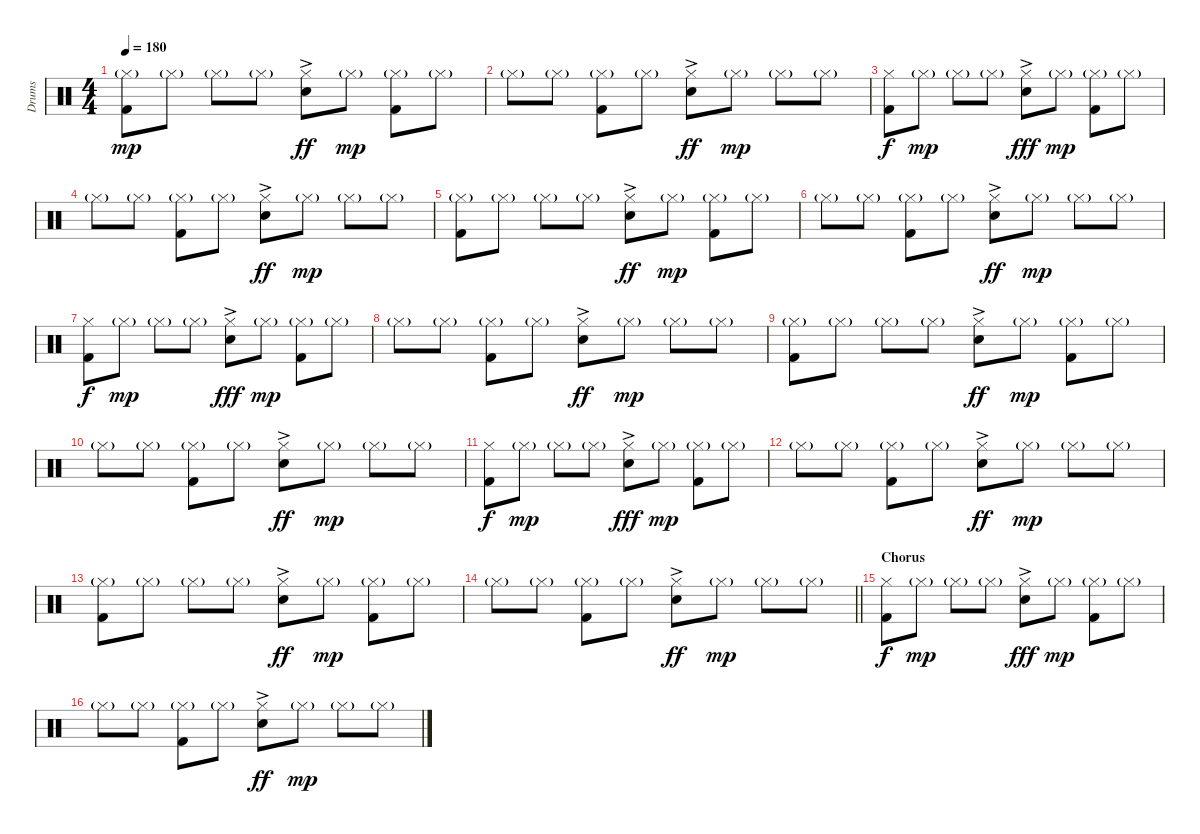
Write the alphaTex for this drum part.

\track ("Drums" "Drums") {instrument percussion}
\staff {score}
\articulation defaults
\ts (4 4)
\tempo 180
\clef neutral
\ks c
("Hi-Hat (closed)"{g} "Kick (hit) 2").8{dy mp} "Hi-Hat (closed)"{g}.8 "Hi-Hat (closed)"{g}.8 "Hi-Hat (closed)"{g}.8 ("Hi-Hat (closed)"{ac} "Snare (hit) 2"{ac}).8{dy ff} "Hi-Hat (closed)"{g}.8{dy mp} ("Hi-Hat (closed)"{g} "Kick (hit) 2").8 "Hi-Hat (closed)"{g}.8 |
"Hi-Hat (closed)"{g}.8 "Hi-Hat (closed)"{g}.8 ("Hi-Hat (closed)"{g} "Kick (hit) 2").8 "Hi-Hat (closed)"{g}.8 ("Hi-Hat (closed)"{ac} "Snare (hit) 2"{ac}).8{dy ff} "Hi-Hat (closed)"{g}.8{dy mp} "Hi-Hat (closed)"{g}.8 "Hi-Hat (closed)"{g}.8 |
("Hi-Hat (closed)" "Kick (hit) 2").8{dy f} "Hi-Hat (closed)"{g}.8{dy mp} "Hi-Hat (closed)"{g}.8 "Hi-Hat (closed)"{g}.8 ("Hi-Hat (closed)"{ac} "Snare (hit) 2"{ac}).8{dy fff} "Hi-Hat (closed)"{g}.8{dy mp} ("Hi-Hat (closed)"{g} "Kick (hit) 2").8 "Hi-Hat (closed)"{g}.8 |
"Hi-Hat (closed)"{g}.8 "Hi-Hat (closed)"{g}.8 ("Hi-Hat (closed)"{g} "Kick (hit) 2").8 "Hi-Hat (closed)"{g}.8 ("Hi-Hat (closed)"{ac} "Snare (hit) 2"{ac}).8{dy ff} "Hi-Hat (closed)"{g}.8{dy mp} "Hi-Hat (closed)"{g}.8 "Hi-Hat (closed)"{g}.8 |
("Hi-Hat (closed)"{g} "Kick (hit) 2").8 "Hi-Hat (closed)"{g}.8 "Hi-Hat (closed)"{g}.8 "Hi-Hat (closed)"{g}.8 ("Hi-Hat (closed)"{ac} "Snare (hit) 2"{ac}).8{dy ff} "Hi-Hat (closed)"{g}.8{dy mp} ("Hi-Hat (closed)"{g} "Kick (hit) 2").8 "Hi-Hat (closed)"{g}.8 |
"Hi-Hat (closed)"{g}.8 "Hi-Hat (closed)"{g}.8 ("Hi-Hat (closed)"{g} "Kick (hit) 2").8 "Hi-Hat (closed)"{g}.8 ("Hi-Hat (closed)"{ac} "Snare (hit) 2"{ac}).8{dy ff} "Hi-Hat (closed)"{g}.8{dy mp} "Hi-Hat (closed)"{g}.8 "Hi-Hat (closed)"{g}.8 |
("Hi-Hat (closed)" "Kick (hit) 2").8{dy f} "Hi-Hat (closed)"{g}.8{dy mp} "Hi-Hat (closed)"{g}.8 "Hi-Hat (closed)"{g}.8 ("Hi-Hat (closed)"{ac} "Snare (hit) 2"{ac}).8{dy fff} "Hi-Hat (closed)"{g}.8{dy mp} ("Hi-Hat (closed)"{g} "Kick (hit) 2").8 "Hi-Hat (closed)"{g}.8 |
"Hi-Hat (closed)"{g}.8 "Hi-Hat (closed)"{g}.8 ("Hi-Hat (closed)"{g} "Kick (hit) 2").8 "Hi-Hat (closed)"{g}.8 ("Hi-Hat (closed)"{ac} "Snare (hit) 2"{ac}).8{dy ff} "Hi-Hat (closed)"{g}.8{dy mp} "Hi-Hat (closed)"{g}.8 "Hi-Hat (closed)"{g}.8 |
("Hi-Hat (closed)"{g} "Kick (hit) 2").8 "Hi-Hat (closed)"{g}.8 "Hi-Hat (closed)"{g}.8 "Hi-Hat (closed)"{g}.8 ("Hi-Hat (closed)"{ac} "Snare (hit) 2"{ac}).8{dy ff} "Hi-Hat (closed)"{g}.8{dy mp} ("Hi-Hat (closed)"{g} "Kick (hit) 2").8 "Hi-Hat (closed)"{g}.8 |
"Hi-Hat (closed)"{g}.8 "Hi-Hat (closed)"{g}.8 ("Hi-Hat (closed)"{g} "Kick (hit) 2").8 "Hi-Hat (closed)"{g}.8 ("Hi-Hat (closed)"{ac} "Snare (hit) 2"{ac}).8{dy ff} "Hi-Hat (closed)"{g}.8{dy mp} "Hi-Hat (closed)"{g}.8 "Hi-Hat (closed)"{g}.8 |
("Hi-Hat (closed)" "Kick (hit) 2").8{dy f} "Hi-Hat (closed)"{g}.8{dy mp} "Hi-Hat (closed)"{g}.8 "Hi-Hat (closed)"{g}.8 ("Hi-Hat (closed)"{ac} "Snare (hit) 2"{ac}).8{dy fff} "Hi-Hat (closed)"{g}.8{dy mp} ("Hi-Hat (closed)"{g} "Kick (hit) 2").8 "Hi-Hat (closed)"{g}.8 |
"Hi-Hat (closed)"{g}.8 "Hi-Hat (closed)"{g}.8 ("Hi-Hat (closed)"{g} "Kick (hit) 2").8 "Hi-Hat (closed)"{g}.8 ("Hi-Hat (closed)"{ac} "Snare (hit) 2"{ac}).8{dy ff} "Hi-Hat (closed)"{g}.8{dy mp} "Hi-Hat (closed)"{g}.8 "Hi-Hat (closed)"{g}.8 |
("Hi-Hat (closed)"{g} "Kick (hit) 2").8 "Hi-Hat (closed)"{g}.8 "Hi-Hat (closed)"{g}.8 "Hi-Hat (closed)"{g}.8 ("Hi-Hat (closed)"{ac} "Snare (hit) 2"{ac}).8{dy ff} "Hi-Hat (closed)"{g}.8{dy mp} ("Hi-Hat (closed)"{g} "Kick (hit) 2").8 "Hi-Hat (closed)"{g}.8 |
\barLineRight lightlight "Hi-Hat (closed)"{g}.8 "Hi-Hat (closed)"{g}.8
("Hi-Hat (closed)"{g} "Kick (hit) 2").8 "Hi-Hat (closed)"{g}.8 ("Hi-Hat (closed)"{ac} "Snare (hit) 2"{ac}).8{dy ff} "Hi-Hat (closed)"{g}.8{dy mp} "Hi-Hat (closed)"{g}.8 "Hi-Hat (closed)"{g}.8 |
\section ("" "Chorus")
("Hi-Hat (closed)" "Kick (hit) 2").8{dy f} "Hi-Hat (closed)"{g}.8{dy mp} "Hi-Hat (closed)"{g}.8 "Hi-Hat (closed)"{g}.8 ("Hi-Hat (closed)"{ac} "Snare (hit) 2"{ac}).8{dy fff} "Hi-Hat (closed)"{g}.8{dy mp} ("Hi-Hat (closed)"{g} "Kick (hit) 2").8 "Hi-Hat (closed)"{g}.8 |
"Hi-Hat (closed)"{g}.8 "Hi-Hat (closed)"{g}.8 ("Hi-Hat (closed)"{g} "Kick (hit) 2").8 "Hi-Hat (closed)"{g}.8 ("Hi-Hat (closed)"{ac} "Snare (hit) 2"{ac}).8{dy ff} "Hi-Hat (closed)"{g}.8{dy mp} "Hi-Hat (closed)"{g}.8 "Hi-Hat (closed)"{g}.8
